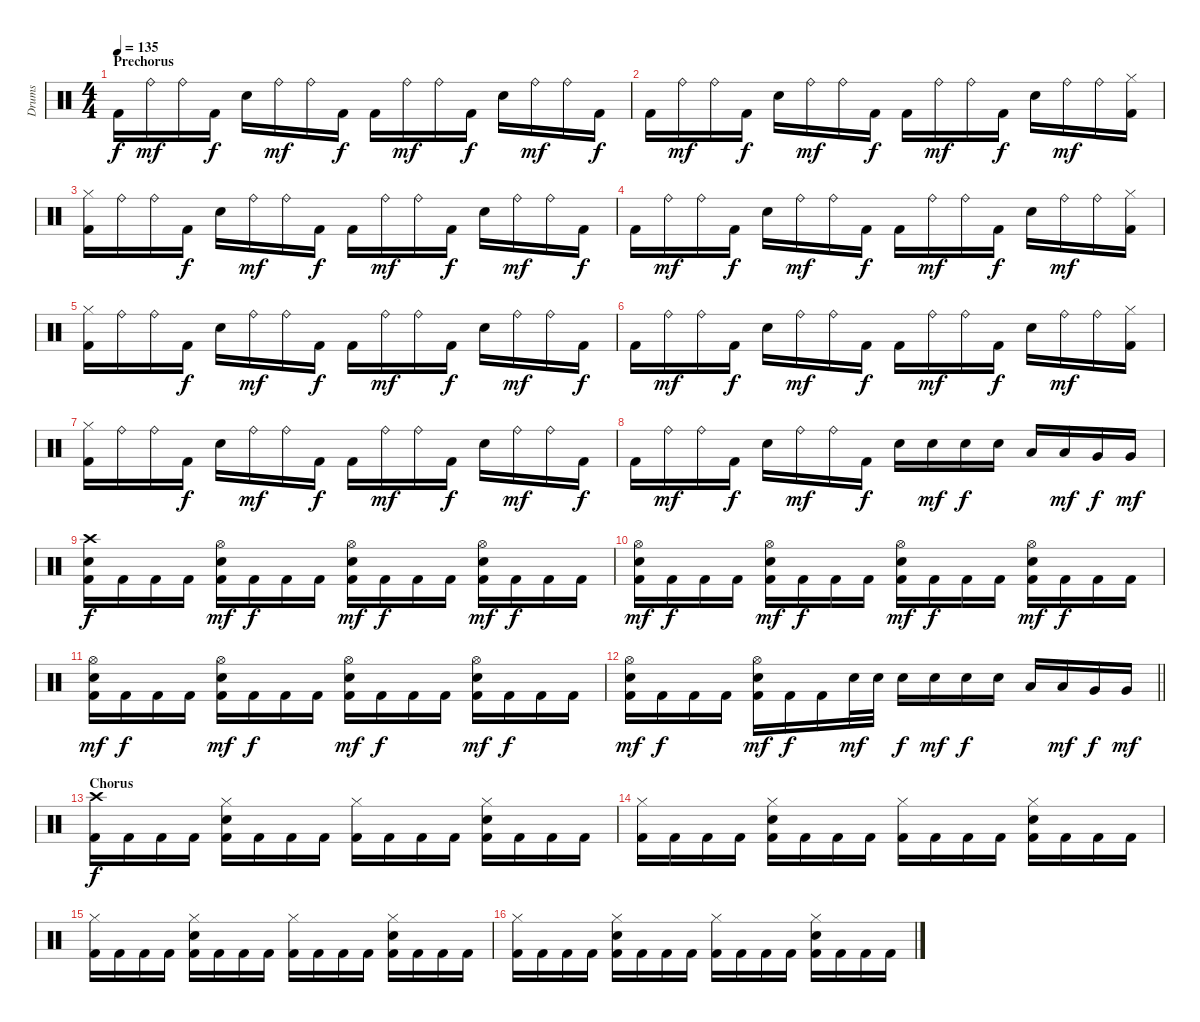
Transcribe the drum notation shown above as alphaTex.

\track ("Drums" "Drums") {instrument percussion}
\staff {score}
\articulation defaults
\ts (4 4)
\section ("" "Prechorus")
\tempo 135
\clef neutral
\ks c "Kick (hit) 2".16{dy f} "Ride (bell)".16{dy mf} "Ride (bell)".16 "Kick (hit) 2".16{dy f} "Electric Snare (hit)".16 "Ride (bell)".16{dy mf} "Ride (bell)".16 "Kick (hit) 2".16{dy f} "Kick (hit) 2".16 "Ride (bell)".16{dy mf} "Ride (bell)".16 "Kick (hit) 2".16{dy f} "Electric Snare (hit)".16 "Ride (bell)".16{dy mf} "Ride (bell)".16 "Kick (hit) 2".16{dy f}
|
"Kick (hit) 2".16 "Ride (bell)".16{dy mf} "Ride (bell)".16 "Kick (hit) 2".16{dy f} "Electric Snare (hit)".16 "Ride (bell)".16{dy mf} "Ride (bell)".16 "Kick (hit) 2".16{dy f} "Kick (hit) 2".16 "Ride (bell)".16{dy mf} "Ride (bell)".16 "Kick (hit) 2".16{dy f} "Electric Snare (hit)".16 "Ride (bell)".16{dy mf} "Ride (bell)".16 ("Kick (hit) 2" "Hi-Hat (closed)").16 |
("Kick (hit) 2" "Hi-Hat (closed)").16 "Ride (bell)".16 "Ride (bell)".16 "Kick (hit) 2".16{dy f} "Electric Snare (hit)".16 "Ride (bell)".16{dy mf} "Ride (bell)".16 "Kick (hit) 2".16{dy f} "Kick (hit) 2".16 "Ride (bell)".16{dy mf} "Ride (bell)".16 "Kick (hit) 2".16{dy f} "Electric Snare (hit)".16 "Ride (bell)".16{dy mf} "Ride (bell)".16 "Kick (hit) 2".16{dy f} |
"Kick (hit) 2".16 "Ride (bell)".16{dy mf} "Ride (bell)".16 "Kick (hit) 2".16{dy f} "Electric Snare (hit)".16 "Ride (bell)".16{dy mf} "Ride (bell)".16 "Kick (hit) 2".16{dy f} "Kick (hit) 2".16 "Ride (bell)".16{dy mf} "Ride (bell)".16 "Kick (hit) 2".16{dy f} "Electric Snare (hit)".16 "Ride (bell)".16{dy mf} "Ride (bell)".16 ("Kick (hit) 2" "Hi-Hat (closed)").16 |
("Kick (hit) 2" "Hi-Hat (closed)").16 "Ride (bell)".16 "Ride (bell)".16 "Kick (hit) 2".16{dy f} "Electric Snare (hit)".16 "Ride (bell)".16{dy mf} "Ride (bell)".16 "Kick (hit) 2".16{dy f} "Kick (hit) 2".16 "Ride (bell)".16{dy mf} "Ride (bell)".16 "Kick (hit) 2".16{dy f} "Electric Snare (hit)".16 "Ride (bell)".16{dy mf} "Ride (bell)".16 "Kick (hit) 2".16{dy f} |
"Kick (hit) 2".16 "Ride (bell)".16{dy mf} "Ride (bell)".16 "Kick (hit) 2".16{dy f} "Electric Snare (hit)".16 "Ride (bell)".16{dy mf} "Ride (bell)".16 "Kick (hit) 2".16{dy f} "Kick (hit) 2".16 "Ride (bell)".16{dy mf} "Ride (bell)".16 "Kick (hit) 2".16{dy f} "Electric Snare (hit)".16 "Ride (bell)".16{dy mf} "Ride (bell)".16 ("Kick (hit) 2" "Hi-Hat (closed)").16 |
("Kick (hit) 2" "Hi-Hat (closed)").16 "Ride (bell)".16 "Ride (bell)".16 "Kick (hit) 2".16{dy f} "Electric Snare (hit)".16 "Ride (bell)".16{dy mf} "Ride (bell)".16 "Kick (hit) 2".16{dy f} "Kick (hit) 2".16 "Ride (bell)".16{dy mf} "Ride (bell)".16 "Kick (hit) 2".16{dy f} "Electric Snare (hit)".16 "Ride (bell)".16{dy mf} "Ride (bell)".16 "Kick (hit) 2".16{dy f} |
"Kick (hit) 2".16 "Ride (bell)".16{dy mf} "Ride (bell)".16 "Kick (hit) 2".16{dy f} "Electric Snare (hit)".16 "Ride (bell)".16{dy mf} "Ride (bell)".16 "Kick (hit) 2".16{dy f} "Electric Snare (hit)".16 "Electric Snare (hit)".16{dy mf} "Electric Snare (hit)".16{dy f} "Electric Snare (hit)".16 "Low Tom (hit)".16 "Low Tom (hit)".16{dy mf} "Very Low Tom (hit)".16{dy f} "Very Low Tom (hit)".16{dy mf} |
("Kick (hit) 2" "Crash high (hit)" "Electric Snare (hit)").16{dy f} "Kick (hit) 2".16 "Kick (hit) 2".16 "Kick (hit) 2".16 ("Kick (hit) 2" "Hi-Hat (open)" "Electric Snare (hit)").16{dy mf} "Kick (hit) 2".16{dy f} "Kick (hit) 2".16 "Kick (hit) 2".16 ("Kick (hit) 2" "Hi-Hat (open)" "Electric Snare (hit)").16{dy mf} "Kick (hit) 2".16{dy f} "Kick (hit) 2".16 "Kick (hit) 2".16 ("Kick (hit) 2" "Hi-Hat (open)" "Electric Snare (hit)").16{dy mf} "Kick (hit) 2".16{dy f} "Kick (hit) 2".16 "Kick (hit) 2".16 |
("Kick (hit) 2" "Hi-Hat (open)" "Electric Snare (hit)").16{dy mf} "Kick (hit) 2".16{dy f} "Kick (hit) 2".16 "Kick (hit) 2".16 ("Kick (hit) 2" "Hi-Hat (open)" "Electric Snare (hit)").16{dy mf} "Kick (hit) 2".16{dy f} "Kick (hit) 2".16 "Kick (hit) 2".16 ("Kick (hit) 2" "Hi-Hat (open)" "Electric Snare (hit)").16{dy mf} "Kick (hit) 2".16{dy f} "Kick (hit) 2".16 "Kick (hit) 2".16 ("Kick (hit) 2" "Hi-Hat (open)" "Electric Snare (hit)").16{dy mf} "Kick (hit) 2".16{dy f} "Kick (hit) 2".16 "Kick (hit) 2".16 |
("Kick (hit) 2" "Hi-Hat (open)" "Electric Snare (hit)").16{dy mf} "Kick (hit) 2".16{dy f} "Kick (hit) 2".16 "Kick (hit) 2".16 ("Kick (hit) 2" "Hi-Hat (open)" "Electric Snare (hit)").16{dy mf} "Kick (hit) 2".16{dy f} "Kick (hit) 2".16 "Kick (hit) 2".16 ("Kick (hit) 2" "Hi-Hat (open)" "Electric Snare (hit)").16{dy mf} "Kick (hit) 2".16{dy f} "Kick (hit) 2".16 "Kick (hit) 2".16 ("Kick (hit) 2" "Hi-Hat (open)" "Electric Snare (hit)").16{dy mf} "Kick (hit) 2".16{dy f} "Kick (hit) 2".16 "Kick (hit) 2".16 |
\barLineRight lightlight
("Kick (hit) 2" "Hi-Hat (open)" "Electric Snare (hit)").16{dy mf} "Kick (hit) 2".16{dy f} "Kick (hit) 2".16 "Kick (hit) 2".16 ("Kick (hit) 2" "Hi-Hat (open)" "Electric Snare (hit)").16{dy mf} "Kick (hit) 2".16{dy f} "Kick (hit) 2".16 "Electric Snare (hit)".32{dy mf} "Electric Snare (hit)".32 "Electric Snare (hit)".16{dy f} "Electric Snare (hit)".16{dy mf} "Electric Snare (hit)".16{dy f} "Electric Snare (hit)".16 "Low Tom (hit)".16 "Low Tom (hit)".16{dy mf} "Very Low Tom (hit)".16{dy f} "Very Low Tom (hit)".16{dy mf} |
\section ("" "Chorus")
("Kick (hit) 2" "Crash high (hit)").16{dy f} "Kick (hit) 2".16 "Kick (hit) 2".16 "Kick (hit) 2".16 ("Kick (hit) 2" "Hi-Hat (closed)" "Electric Snare (hit)").16 "Kick (hit) 2".16 "Kick (hit) 2".16 "Kick (hit) 2".16 ("Kick (hit) 2" "Hi-Hat (closed)").16 "Kick (hit) 2".16 "Kick (hit) 2".16 "Kick (hit) 2".16 ("Kick (hit) 2" "Hi-Hat (closed)" "Electric Snare (hit)").16 "Kick (hit) 2".16 "Kick (hit) 2".16 "Kick (hit) 2".16 |
("Kick (hit) 2" "Hi-Hat (closed)").16 "Kick (hit) 2".16 "Kick (hit) 2".16 "Kick (hit) 2".16 ("Kick (hit) 2" "Hi-Hat (closed)" "Electric Snare (hit)").16 "Kick (hit) 2".16 "Kick (hit) 2".16 "Kick (hit) 2".16 ("Kick (hit) 2" "Hi-Hat (closed)").16 "Kick (hit) 2".16 "Kick (hit) 2".16 "Kick (hit) 2".16 ("Kick (hit) 2" "Hi-Hat (closed)" "Electric Snare (hit)").16 "Kick (hit) 2".16 "Kick (hit) 2".16 "Kick (hit) 2".16 |
("Kick (hit) 2" "Hi-Hat (closed)").16 "Kick (hit) 2".16 "Kick (hit) 2".16 "Kick (hit) 2".16 ("Kick (hit) 2" "Hi-Hat (closed)" "Electric Snare (hit)").16 "Kick (hit) 2".16 "Kick (hit) 2".16 "Kick (hit) 2".16 ("Kick (hit) 2" "Hi-Hat (closed)").16 "Kick (hit) 2".16 "Kick (hit) 2".16 "Kick (hit) 2".16 ("Kick (hit) 2" "Hi-Hat (closed)" "Electric Snare (hit)").16 "Kick (hit) 2".16 "Kick (hit) 2".16 "Kick (hit) 2".16 |
("Kick (hit) 2" "Hi-Hat (closed)").16 "Kick (hit) 2".16 "Kick (hit) 2".16 "Kick (hit) 2".16 ("Kick (hit) 2" "Hi-Hat (closed)" "Electric Snare (hit)").16 "Kick (hit) 2".16 "Kick (hit) 2".16 "Kick (hit) 2".16 ("Kick (hit) 2" "Hi-Hat (closed)").16 "Kick (hit) 2".16 "Kick (hit) 2".16 "Kick (hit) 2".16 ("Kick (hit) 2" "Hi-Hat (closed)" "Electric Snare (hit)").16 "Kick (hit) 2".16 "Kick (hit) 2".16 "Kick (hit) 2".16
